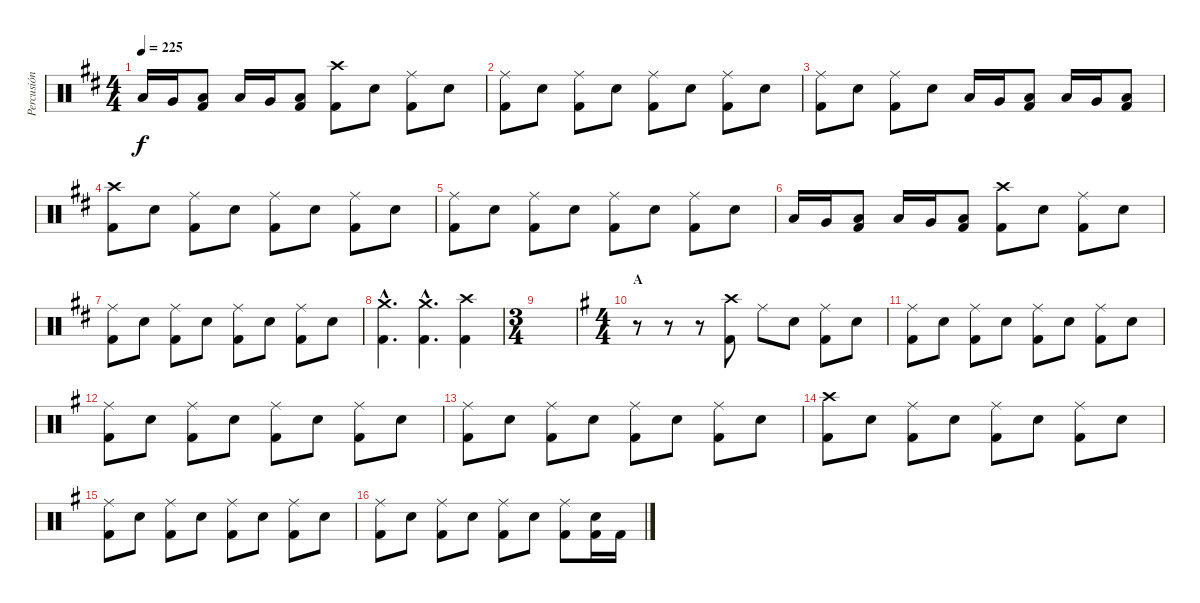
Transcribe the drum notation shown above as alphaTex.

\track ("Percusión" "Percusión") {instrument percussion}
\staff {score}
\articulation defaults
\ts (4 4)
\tempo 225
\clef neutral
\ks d "Low Tom (hit)".16{dy f} "Very Low Tom (hit)".16
("Low Floor Tom (hit)" "Kick (hit) 2").8 "Low Tom (hit)".16 "Very Low Tom (hit)".16 ("Low Floor Tom (hit)" "Kick (hit) 2").8 ("Crash high (hit)" "Kick (hit) 2").8 "Electric Snare (hit)".8 ("Ride (middle)" "Kick (hit) 2").8 "Electric Snare (hit)".8 |
("Ride (middle)" "Kick (hit) 2").8 "Electric Snare (hit)".8 ("Ride (middle)" "Kick (hit) 2").8 "Electric Snare (hit)".8 ("Ride (middle)" "Kick (hit) 2").8 "Electric Snare (hit)".8 ("Ride (middle)" "Kick (hit) 2").8 "Electric Snare (hit)".8 |
("Ride (middle)" "Kick (hit) 2").8 "Electric Snare (hit)".8 ("Ride (middle)" "Kick (hit) 2").8 "Electric Snare (hit)".8 "Low Tom (hit)".16 "Very Low Tom (hit)".16 ("Low Floor Tom (hit)" "Kick (hit) 2").8 "Low Tom (hit)".16 "Very Low Tom (hit)".16 ("Low Floor Tom (hit)" "Kick (hit) 2").8 |
("Crash high (hit)" "Kick (hit) 2").8 "Electric Snare (hit)".8 ("Ride (middle)" "Kick (hit) 2").8 "Electric Snare (hit)".8 ("Ride (middle)" "Kick (hit) 2").8 "Electric Snare (hit)".8 ("Ride (middle)" "Kick (hit) 2").8 "Electric Snare (hit)".8 |
("Ride (middle)" "Kick (hit) 2").8 "Electric Snare (hit)".8 ("Ride (middle)" "Kick (hit) 2").8 "Electric Snare (hit)".8 ("Ride (middle)" "Kick (hit) 2").8 "Electric Snare (hit)".8 ("Ride (middle)" "Kick (hit) 2").8 "Electric Snare (hit)".8 |
"Low Tom (hit)".16 "Very Low Tom (hit)".16 ("Low Floor Tom (hit)" "Kick (hit) 2").8 "Low Tom (hit)".16 "Very Low Tom (hit)".16 ("Low Floor Tom (hit)" "Kick (hit) 2").8 ("Crash high (hit)" "Kick (hit) 2").8 "Electric Snare (hit)".8 ("Ride (middle)" "Kick (hit) 2").8 "Electric Snare (hit)".8 |
("Ride (middle)" "Kick (hit) 2").8 "Electric Snare (hit)".8 ("Ride (middle)" "Kick (hit) 2").8 "Electric Snare (hit)".8 ("Ride (middle)" "Kick (hit) 2").8 "Electric Snare (hit)".8 ("Ride (middle)" "Kick (hit) 2").8 "Electric Snare (hit)".8 |
("Crash medium (hit)"{hac} "Kick (hit) 2"{hac}).4{d} ("Crash medium (hit)"{hac} "Kick (hit) 2"{hac}).4{d} ("Crash high (hit)" "Kick (hit) 2").4 |
\ts (3 4)
|
\ts (4 4)
\section ("" "A")
\ks g
r.8 r.8 r.8 ("Crash high (hit)" "Kick (hit) 2").8 "Ride (middle)".8 "Electric Snare (hit)".8 ("Ride (middle)" "Kick (hit) 2").8 "Electric Snare (hit)".8 |
("Ride (middle)" "Kick (hit) 2").8 "Electric Snare (hit)".8 ("Ride (middle)" "Kick (hit) 2").8 "Electric Snare (hit)".8 ("Ride (middle)" "Kick (hit) 2").8 "Electric Snare (hit)".8 ("Ride (middle)" "Kick (hit) 2").8 "Electric Snare (hit)".8 |
("Ride (middle)" "Kick (hit) 2").8 "Electric Snare (hit)".8 ("Ride (middle)" "Kick (hit) 2").8 "Electric Snare (hit)".8 ("Ride (middle)" "Kick (hit) 2").8 "Electric Snare (hit)".8 ("Ride (middle)" "Kick (hit) 2").8 "Electric Snare (hit)".8 |
("Ride (middle)" "Kick (hit) 2").8 "Electric Snare (hit)".8 ("Ride (middle)" "Kick (hit) 2").8 "Electric Snare (hit)".8 ("Ride (middle)" "Kick (hit) 2").8 "Electric Snare (hit)".8 ("Ride (middle)" "Kick (hit) 2").8 "Electric Snare (hit)".8 |
("Crash high (hit)" "Kick (hit) 2").8 "Electric Snare (hit)".8 ("Ride (middle)" "Kick (hit) 2").8 "Electric Snare (hit)".8 ("Ride (middle)" "Kick (hit) 2").8 "Electric Snare (hit)".8 ("Ride (middle)" "Kick (hit) 2").8 "Electric Snare (hit)".8 |
("Ride (middle)" "Kick (hit) 2").8 "Electric Snare (hit)".8 ("Ride (middle)" "Kick (hit) 2").8 "Electric Snare (hit)".8 ("Ride (middle)" "Kick (hit) 2").8 "Electric Snare (hit)".8 ("Ride (middle)" "Kick (hit) 2").8 "Electric Snare (hit)".8 |
("Ride (middle)" "Kick (hit) 2").8 "Electric Snare (hit)".8 ("Ride (middle)" "Kick (hit) 2").8 "Electric Snare (hit)".8 ("Ride (middle)" "Kick (hit) 2").8 "Electric Snare (hit)".8 ("Ride (middle)" "Kick (hit) 2").8 ("Electric Snare (hit)" "Kick (hit) 2").16 "Kick (hit) 2".16
